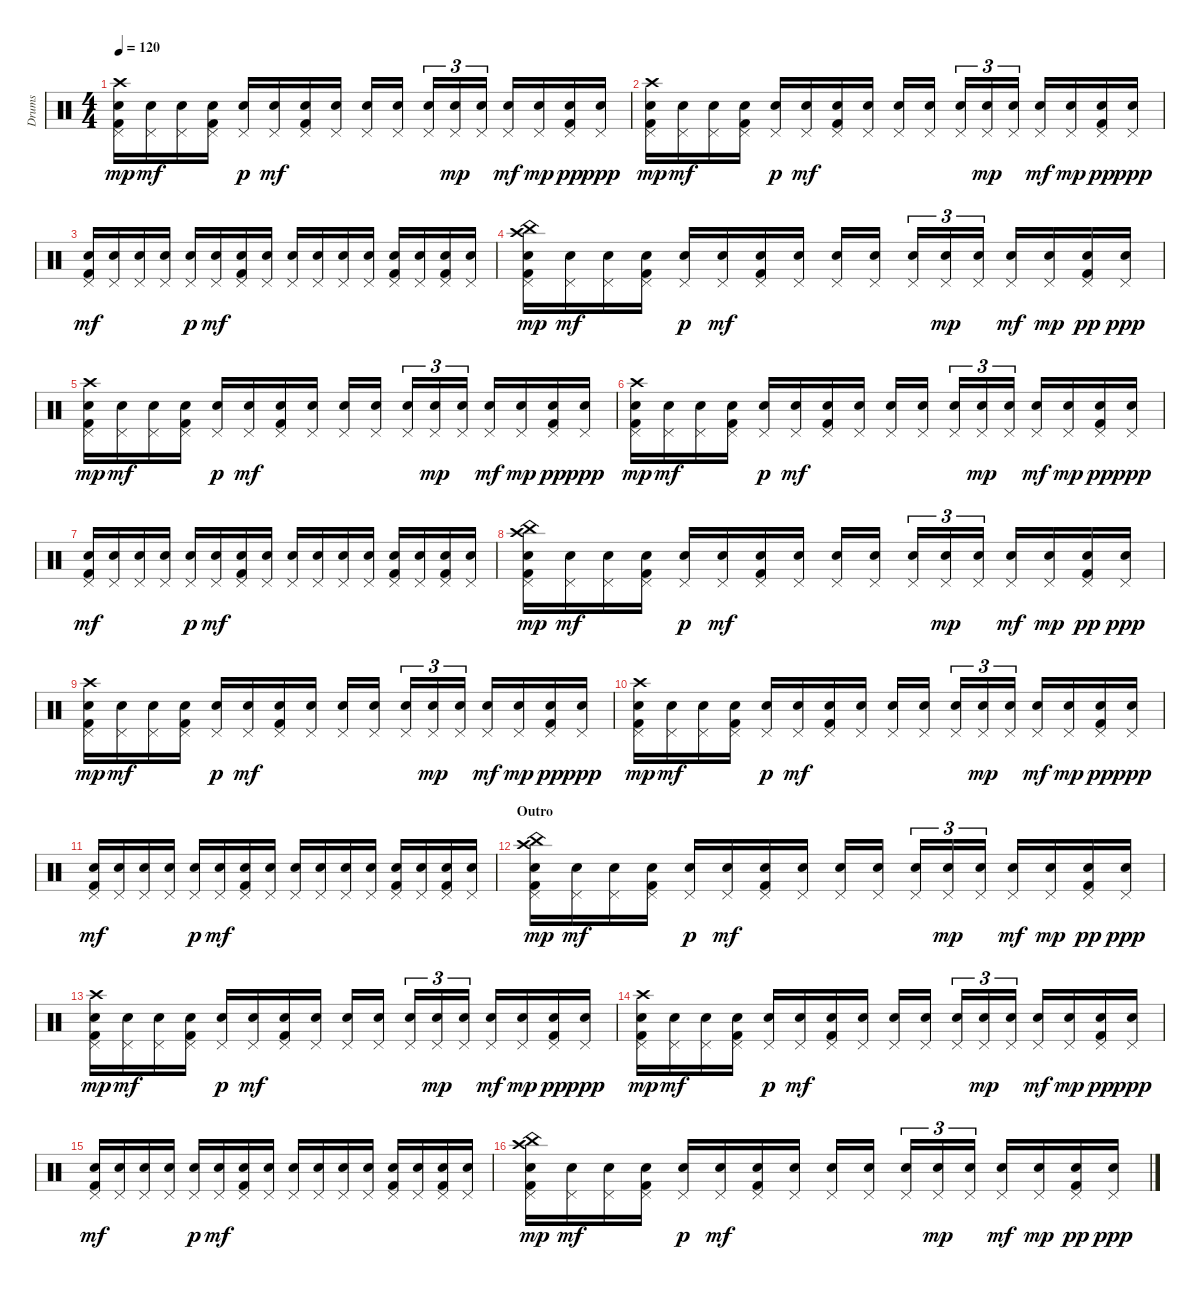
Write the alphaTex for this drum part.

\track ("Drums" "Drums") {instrument percussion}
\staff {score}
\articulation defaults
\ts (4 4)
\tempo 120
\clef neutral
\ks c
("Electric Snare (hit)" "Pedal Hi-Hat (hit)" "Kick (hit) 2" "Crash high (hit)").16{dy mp} ("Electric Snare (hit)" "Pedal Hi-Hat (hit)").16{dy mf} ("Electric Snare (hit)" "Pedal Hi-Hat (hit)").16 ("Electric Snare (hit)" "Pedal Hi-Hat (hit)" "Kick (hit) 2").16 ("Pedal Hi-Hat (hit)" "Electric Snare (hit)").16{dy p} ("Electric Snare (hit)" "Pedal Hi-Hat (hit)").16{dy mf} ("Electric Snare (hit)" "Pedal Hi-Hat (hit)" "Kick (hit) 2").16 ("Electric Snare (hit)" "Pedal Hi-Hat (hit)").16 ("Electric Snare (hit)" "Pedal Hi-Hat (hit)").16 ("Electric Snare (hit)" "Pedal Hi-Hat (hit)").16 ("Electric Snare (hit)" "Pedal Hi-Hat (hit)").16{tu (3 2)} ("Electric Snare (hit)" "Pedal Hi-Hat (hit)").16{tu (3 2) dy mp} ("Electric Snare (hit)" "Pedal Hi-Hat (hit)").16{tu (3 2)} ("Electric Snare (hit)" "Pedal Hi-Hat (hit)").16{dy mf} ("Electric Snare (hit)" "Pedal Hi-Hat (hit)").16{dy mp} ("Electric Snare (hit)" "Pedal Hi-Hat (hit)" "Kick (hit) 2").16{dy pp} ("Electric Snare (hit)" "Pedal Hi-Hat (hit)").16{dy ppp} |
("Electric Snare (hit)" "Pedal Hi-Hat (hit)" "Kick (hit) 2" "Crash high (hit)").16{dy mp} ("Electric Snare (hit)" "Pedal Hi-Hat (hit)").16{dy mf} ("Electric Snare (hit)" "Pedal Hi-Hat (hit)").16 ("Electric Snare (hit)" "Pedal Hi-Hat (hit)" "Kick (hit) 2").16 ("Pedal Hi-Hat (hit)" "Electric Snare (hit)").16{dy p} ("Electric Snare (hit)" "Pedal Hi-Hat (hit)").16{dy mf} ("Electric Snare (hit)" "Pedal Hi-Hat (hit)" "Kick (hit) 2").16 ("Electric Snare (hit)" "Pedal Hi-Hat (hit)").16 ("Electric Snare (hit)" "Pedal Hi-Hat (hit)").16 ("Electric Snare (hit)" "Pedal Hi-Hat (hit)").16 ("Electric Snare (hit)" "Pedal Hi-Hat (hit)").16{tu (3 2)} ("Electric Snare (hit)" "Pedal Hi-Hat (hit)").16{tu (3 2) dy mp} ("Electric Snare (hit)" "Pedal Hi-Hat (hit)").16{tu (3 2)} ("Electric Snare (hit)" "Pedal Hi-Hat (hit)").16{dy mf} ("Electric Snare (hit)" "Pedal Hi-Hat (hit)").16{dy mp} ("Electric Snare (hit)" "Pedal Hi-Hat (hit)" "Kick (hit) 2").16{dy pp} ("Electric Snare (hit)" "Pedal Hi-Hat (hit)").16{dy ppp} |
("Electric Snare (hit)" "Pedal Hi-Hat (hit)" "Kick (hit) 2").16{dy mf} ("Electric Snare (hit)" "Pedal Hi-Hat (hit)").16 ("Electric Snare (hit)" "Pedal Hi-Hat (hit)").16 ("Electric Snare (hit)" "Pedal Hi-Hat (hit)").16 ("Pedal Hi-Hat (hit)" "Electric Snare (hit)").16{dy p} ("Electric Snare (hit)" "Pedal Hi-Hat (hit)").16{dy mf} ("Electric Snare (hit)" "Pedal Hi-Hat (hit)" "Kick (hit) 2").16 ("Electric Snare (hit)" "Pedal Hi-Hat (hit)").16 ("Electric Snare (hit)" "Pedal Hi-Hat (hit)").16 ("Electric Snare (hit)" "Pedal Hi-Hat (hit)").16 ("Electric Snare (hit)" "Pedal Hi-Hat (hit)").16 ("Electric Snare (hit)" "Pedal Hi-Hat (hit)").16 ("Electric Snare (hit)" "Pedal Hi-Hat (hit)" "Kick (hit) 2").16 ("Electric Snare (hit)" "Pedal Hi-Hat (hit)").16 ("Electric Snare (hit)" "Pedal Hi-Hat (hit)" "Kick (hit) 2").16 ("Electric Snare (hit)" "Pedal Hi-Hat (hit)").16 |
("Electric Snare (hit)" "Pedal Hi-Hat (hit)" "Kick (hit) 2" "China (hit)" "Crash high (hit)").16{dy mp} ("Electric Snare (hit)" "Pedal Hi-Hat (hit)").16{dy mf} ("Electric Snare (hit)" "Pedal Hi-Hat (hit)").16 ("Electric Snare (hit)" "Pedal Hi-Hat (hit)" "Kick (hit) 2").16 ("Pedal Hi-Hat (hit)" "Electric Snare (hit)").16{dy p} ("Electric Snare (hit)" "Pedal Hi-Hat (hit)").16{dy mf} ("Electric Snare (hit)" "Pedal Hi-Hat (hit)" "Kick (hit) 2").16 ("Electric Snare (hit)" "Pedal Hi-Hat (hit)").16 ("Electric Snare (hit)" "Pedal Hi-Hat (hit)").16 ("Electric Snare (hit)" "Pedal Hi-Hat (hit)").16 ("Electric Snare (hit)" "Pedal Hi-Hat (hit)").16{tu (3 2)} ("Electric Snare (hit)" "Pedal Hi-Hat (hit)").16{tu (3 2) dy mp} ("Electric Snare (hit)" "Pedal Hi-Hat (hit)").16{tu (3 2)} ("Electric Snare (hit)" "Pedal Hi-Hat (hit)").16{dy mf} ("Electric Snare (hit)" "Pedal Hi-Hat (hit)").16{dy mp} ("Electric Snare (hit)" "Pedal Hi-Hat (hit)" "Kick (hit) 2").16{dy pp} ("Electric Snare (hit)" "Pedal Hi-Hat (hit)").16{dy ppp} |
("Electric Snare (hit)" "Pedal Hi-Hat (hit)" "Kick (hit) 2" "Crash high (hit)").16{dy mp} ("Electric Snare (hit)" "Pedal Hi-Hat (hit)").16{dy mf} ("Electric Snare (hit)" "Pedal Hi-Hat (hit)").16 ("Electric Snare (hit)" "Pedal Hi-Hat (hit)" "Kick (hit) 2").16 ("Pedal Hi-Hat (hit)" "Electric Snare (hit)").16{dy p} ("Electric Snare (hit)" "Pedal Hi-Hat (hit)").16{dy mf} ("Electric Snare (hit)" "Pedal Hi-Hat (hit)" "Kick (hit) 2").16 ("Electric Snare (hit)" "Pedal Hi-Hat (hit)").16 ("Electric Snare (hit)" "Pedal Hi-Hat (hit)").16 ("Electric Snare (hit)" "Pedal Hi-Hat (hit)").16 ("Electric Snare (hit)" "Pedal Hi-Hat (hit)").16{tu (3 2)} ("Electric Snare (hit)" "Pedal Hi-Hat (hit)").16{tu (3 2) dy mp} ("Electric Snare (hit)" "Pedal Hi-Hat (hit)").16{tu (3 2)} ("Electric Snare (hit)" "Pedal Hi-Hat (hit)").16{dy mf} ("Electric Snare (hit)" "Pedal Hi-Hat (hit)").16{dy mp} ("Electric Snare (hit)" "Pedal Hi-Hat (hit)" "Kick (hit) 2").16{dy pp} ("Electric Snare (hit)" "Pedal Hi-Hat (hit)").16{dy ppp} |
("Electric Snare (hit)" "Pedal Hi-Hat (hit)" "Kick (hit) 2" "Crash high (hit)").16{dy mp} ("Electric Snare (hit)" "Pedal Hi-Hat (hit)").16{dy mf} ("Electric Snare (hit)" "Pedal Hi-Hat (hit)").16 ("Electric Snare (hit)" "Pedal Hi-Hat (hit)" "Kick (hit) 2").16 ("Pedal Hi-Hat (hit)" "Electric Snare (hit)").16{dy p} ("Electric Snare (hit)" "Pedal Hi-Hat (hit)").16{dy mf} ("Electric Snare (hit)" "Pedal Hi-Hat (hit)" "Kick (hit) 2").16 ("Electric Snare (hit)" "Pedal Hi-Hat (hit)").16 ("Electric Snare (hit)" "Pedal Hi-Hat (hit)").16 ("Electric Snare (hit)" "Pedal Hi-Hat (hit)").16 ("Electric Snare (hit)" "Pedal Hi-Hat (hit)").16{tu (3 2)} ("Electric Snare (hit)" "Pedal Hi-Hat (hit)").16{tu (3 2) dy mp} ("Electric Snare (hit)" "Pedal Hi-Hat (hit)").16{tu (3 2)} ("Electric Snare (hit)" "Pedal Hi-Hat (hit)").16{dy mf} ("Electric Snare (hit)" "Pedal Hi-Hat (hit)").16{dy mp} ("Electric Snare (hit)" "Pedal Hi-Hat (hit)" "Kick (hit) 2").16{dy pp} ("Electric Snare (hit)" "Pedal Hi-Hat (hit)").16{dy ppp} |
("Electric Snare (hit)" "Pedal Hi-Hat (hit)" "Kick (hit) 2").16{dy mf} ("Electric Snare (hit)" "Pedal Hi-Hat (hit)").16 ("Electric Snare (hit)" "Pedal Hi-Hat (hit)").16 ("Electric Snare (hit)" "Pedal Hi-Hat (hit)").16 ("Pedal Hi-Hat (hit)" "Electric Snare (hit)").16{dy p} ("Electric Snare (hit)" "Pedal Hi-Hat (hit)").16{dy mf} ("Electric Snare (hit)" "Pedal Hi-Hat (hit)" "Kick (hit) 2").16 ("Electric Snare (hit)" "Pedal Hi-Hat (hit)").16 ("Electric Snare (hit)" "Pedal Hi-Hat (hit)").16 ("Electric Snare (hit)" "Pedal Hi-Hat (hit)").16 ("Electric Snare (hit)" "Pedal Hi-Hat (hit)").16 ("Electric Snare (hit)" "Pedal Hi-Hat (hit)").16 ("Electric Snare (hit)" "Pedal Hi-Hat (hit)" "Kick (hit) 2").16 ("Electric Snare (hit)" "Pedal Hi-Hat (hit)").16 ("Electric Snare (hit)" "Pedal Hi-Hat (hit)" "Kick (hit) 2").16 ("Electric Snare (hit)" "Pedal Hi-Hat (hit)").16 |
("Electric Snare (hit)" "Pedal Hi-Hat (hit)" "Kick (hit) 2" "China (hit)" "Crash high (hit)").16{dy mp} ("Electric Snare (hit)" "Pedal Hi-Hat (hit)").16{dy mf} ("Electric Snare (hit)" "Pedal Hi-Hat (hit)").16 ("Electric Snare (hit)" "Pedal Hi-Hat (hit)" "Kick (hit) 2").16 ("Pedal Hi-Hat (hit)" "Electric Snare (hit)").16{dy p} ("Electric Snare (hit)" "Pedal Hi-Hat (hit)").16{dy mf} ("Electric Snare (hit)" "Pedal Hi-Hat (hit)" "Kick (hit) 2").16 ("Electric Snare (hit)" "Pedal Hi-Hat (hit)").16 ("Electric Snare (hit)" "Pedal Hi-Hat (hit)").16 ("Electric Snare (hit)" "Pedal Hi-Hat (hit)").16 ("Electric Snare (hit)" "Pedal Hi-Hat (hit)").16{tu (3 2)} ("Electric Snare (hit)" "Pedal Hi-Hat (hit)").16{tu (3 2) dy mp} ("Electric Snare (hit)" "Pedal Hi-Hat (hit)").16{tu (3 2)} ("Electric Snare (hit)" "Pedal Hi-Hat (hit)").16{dy mf} ("Electric Snare (hit)" "Pedal Hi-Hat (hit)").16{dy mp} ("Electric Snare (hit)" "Pedal Hi-Hat (hit)" "Kick (hit) 2").16{dy pp} ("Electric Snare (hit)" "Pedal Hi-Hat (hit)").16{dy ppp} |
("Electric Snare (hit)" "Pedal Hi-Hat (hit)" "Kick (hit) 2" "Crash high (hit)").16{dy mp} ("Electric Snare (hit)" "Pedal Hi-Hat (hit)").16{dy mf} ("Electric Snare (hit)" "Pedal Hi-Hat (hit)").16 ("Electric Snare (hit)" "Pedal Hi-Hat (hit)" "Kick (hit) 2").16 ("Pedal Hi-Hat (hit)" "Electric Snare (hit)").16{dy p} ("Electric Snare (hit)" "Pedal Hi-Hat (hit)").16{dy mf} ("Electric Snare (hit)" "Pedal Hi-Hat (hit)" "Kick (hit) 2").16 ("Electric Snare (hit)" "Pedal Hi-Hat (hit)").16 ("Electric Snare (hit)" "Pedal Hi-Hat (hit)").16 ("Electric Snare (hit)" "Pedal Hi-Hat (hit)").16 ("Electric Snare (hit)" "Pedal Hi-Hat (hit)").16{tu (3 2)} ("Electric Snare (hit)" "Pedal Hi-Hat (hit)").16{tu (3 2) dy mp} ("Electric Snare (hit)" "Pedal Hi-Hat (hit)").16{tu (3 2)} ("Electric Snare (hit)" "Pedal Hi-Hat (hit)").16{dy mf} ("Electric Snare (hit)" "Pedal Hi-Hat (hit)").16{dy mp} ("Electric Snare (hit)" "Pedal Hi-Hat (hit)" "Kick (hit) 2").16{dy pp} ("Electric Snare (hit)" "Pedal Hi-Hat (hit)").16{dy ppp} |
("Electric Snare (hit)" "Pedal Hi-Hat (hit)" "Kick (hit) 2" "Crash high (hit)").16{dy mp} ("Electric Snare (hit)" "Pedal Hi-Hat (hit)").16{dy mf} ("Electric Snare (hit)" "Pedal Hi-Hat (hit)").16 ("Electric Snare (hit)" "Pedal Hi-Hat (hit)" "Kick (hit) 2").16 ("Pedal Hi-Hat (hit)" "Electric Snare (hit)").16{dy p} ("Electric Snare (hit)" "Pedal Hi-Hat (hit)").16{dy mf} ("Electric Snare (hit)" "Pedal Hi-Hat (hit)" "Kick (hit) 2").16 ("Electric Snare (hit)" "Pedal Hi-Hat (hit)").16 ("Electric Snare (hit)" "Pedal Hi-Hat (hit)").16 ("Electric Snare (hit)" "Pedal Hi-Hat (hit)").16 ("Electric Snare (hit)" "Pedal Hi-Hat (hit)").16{tu (3 2)} ("Electric Snare (hit)" "Pedal Hi-Hat (hit)").16{tu (3 2) dy mp} ("Electric Snare (hit)" "Pedal Hi-Hat (hit)").16{tu (3 2)} ("Electric Snare (hit)" "Pedal Hi-Hat (hit)").16{dy mf} ("Electric Snare (hit)" "Pedal Hi-Hat (hit)").16{dy mp} ("Electric Snare (hit)" "Pedal Hi-Hat (hit)" "Kick (hit) 2").16{dy pp} ("Electric Snare (hit)" "Pedal Hi-Hat (hit)").16{dy ppp} |
("Electric Snare (hit)" "Pedal Hi-Hat (hit)" "Kick (hit) 2").16{dy mf} ("Electric Snare (hit)" "Pedal Hi-Hat (hit)").16 ("Electric Snare (hit)" "Pedal Hi-Hat (hit)").16 ("Electric Snare (hit)" "Pedal Hi-Hat (hit)").16 ("Pedal Hi-Hat (hit)" "Electric Snare (hit)").16{dy p} ("Electric Snare (hit)" "Pedal Hi-Hat (hit)").16{dy mf} ("Electric Snare (hit)" "Pedal Hi-Hat (hit)" "Kick (hit) 2").16 ("Electric Snare (hit)" "Pedal Hi-Hat (hit)").16 ("Electric Snare (hit)" "Pedal Hi-Hat (hit)").16 ("Electric Snare (hit)" "Pedal Hi-Hat (hit)").16 ("Electric Snare (hit)" "Pedal Hi-Hat (hit)").16 ("Electric Snare (hit)" "Pedal Hi-Hat (hit)").16 ("Electric Snare (hit)" "Pedal Hi-Hat (hit)" "Kick (hit) 2").16 ("Electric Snare (hit)" "Pedal Hi-Hat (hit)").16 ("Electric Snare (hit)" "Pedal Hi-Hat (hit)" "Kick (hit) 2").16 ("Electric Snare (hit)" "Pedal Hi-Hat (hit)").16 |
\section ("" "Outro")
("Electric Snare (hit)" "Pedal Hi-Hat (hit)" "Kick (hit) 2" "China (hit)" "Crash high (hit)").16{dy mp} ("Electric Snare (hit)" "Pedal Hi-Hat (hit)").16{dy mf} ("Electric Snare (hit)" "Pedal Hi-Hat (hit)").16 ("Electric Snare (hit)" "Pedal Hi-Hat (hit)" "Kick (hit) 2").16 ("Pedal Hi-Hat (hit)" "Electric Snare (hit)").16{dy p} ("Electric Snare (hit)" "Pedal Hi-Hat (hit)").16{dy mf} ("Electric Snare (hit)" "Pedal Hi-Hat (hit)" "Kick (hit) 2").16 ("Electric Snare (hit)" "Pedal Hi-Hat (hit)").16 ("Electric Snare (hit)" "Pedal Hi-Hat (hit)").16 ("Electric Snare (hit)" "Pedal Hi-Hat (hit)").16 ("Electric Snare (hit)" "Pedal Hi-Hat (hit)").16{tu (3 2)} ("Electric Snare (hit)" "Pedal Hi-Hat (hit)").16{tu (3 2) dy mp} ("Electric Snare (hit)" "Pedal Hi-Hat (hit)").16{tu (3 2)} ("Electric Snare (hit)" "Pedal Hi-Hat (hit)").16{dy mf} ("Electric Snare (hit)" "Pedal Hi-Hat (hit)").16{dy mp} ("Electric Snare (hit)" "Pedal Hi-Hat (hit)" "Kick (hit) 2").16{dy pp} ("Electric Snare (hit)" "Pedal Hi-Hat (hit)").16{dy ppp} |
("Electric Snare (hit)" "Pedal Hi-Hat (hit)" "Kick (hit) 2" "Crash high (hit)").16{dy mp} ("Electric Snare (hit)" "Pedal Hi-Hat (hit)").16{dy mf} ("Electric Snare (hit)" "Pedal Hi-Hat (hit)").16 ("Electric Snare (hit)" "Pedal Hi-Hat (hit)" "Kick (hit) 2").16 ("Pedal Hi-Hat (hit)" "Electric Snare (hit)").16{dy p} ("Electric Snare (hit)" "Pedal Hi-Hat (hit)").16{dy mf} ("Electric Snare (hit)" "Pedal Hi-Hat (hit)" "Kick (hit) 2").16 ("Electric Snare (hit)" "Pedal Hi-Hat (hit)").16 ("Electric Snare (hit)" "Pedal Hi-Hat (hit)").16 ("Electric Snare (hit)" "Pedal Hi-Hat (hit)").16 ("Electric Snare (hit)" "Pedal Hi-Hat (hit)").16{tu (3 2)} ("Electric Snare (hit)" "Pedal Hi-Hat (hit)").16{tu (3 2) dy mp} ("Electric Snare (hit)" "Pedal Hi-Hat (hit)").16{tu (3 2)} ("Electric Snare (hit)" "Pedal Hi-Hat (hit)").16{dy mf} ("Electric Snare (hit)" "Pedal Hi-Hat (hit)").16{dy mp} ("Electric Snare (hit)" "Pedal Hi-Hat (hit)" "Kick (hit) 2").16{dy pp} ("Electric Snare (hit)" "Pedal Hi-Hat (hit)").16{dy ppp} |
("Electric Snare (hit)" "Pedal Hi-Hat (hit)" "Kick (hit) 2" "Crash high (hit)").16{dy mp} ("Electric Snare (hit)" "Pedal Hi-Hat (hit)").16{dy mf} ("Electric Snare (hit)" "Pedal Hi-Hat (hit)").16 ("Electric Snare (hit)" "Pedal Hi-Hat (hit)" "Kick (hit) 2").16 ("Pedal Hi-Hat (hit)" "Electric Snare (hit)").16{dy p} ("Electric Snare (hit)" "Pedal Hi-Hat (hit)").16{dy mf} ("Electric Snare (hit)" "Pedal Hi-Hat (hit)" "Kick (hit) 2").16 ("Electric Snare (hit)" "Pedal Hi-Hat (hit)").16 ("Electric Snare (hit)" "Pedal Hi-Hat (hit)").16 ("Electric Snare (hit)" "Pedal Hi-Hat (hit)").16 ("Electric Snare (hit)" "Pedal Hi-Hat (hit)").16{tu (3 2)} ("Electric Snare (hit)" "Pedal Hi-Hat (hit)").16{tu (3 2) dy mp} ("Electric Snare (hit)" "Pedal Hi-Hat (hit)").16{tu (3 2)} ("Electric Snare (hit)" "Pedal Hi-Hat (hit)").16{dy mf} ("Electric Snare (hit)" "Pedal Hi-Hat (hit)").16{dy mp} ("Electric Snare (hit)" "Pedal Hi-Hat (hit)" "Kick (hit) 2").16{dy pp} ("Electric Snare (hit)" "Pedal Hi-Hat (hit)").16{dy ppp} |
("Electric Snare (hit)" "Pedal Hi-Hat (hit)" "Kick (hit) 2").16{dy mf} ("Electric Snare (hit)" "Pedal Hi-Hat (hit)").16 ("Electric Snare (hit)" "Pedal Hi-Hat (hit)").16 ("Electric Snare (hit)" "Pedal Hi-Hat (hit)").16 ("Pedal Hi-Hat (hit)" "Electric Snare (hit)").16{dy p} ("Electric Snare (hit)" "Pedal Hi-Hat (hit)").16{dy mf} ("Electric Snare (hit)" "Pedal Hi-Hat (hit)" "Kick (hit) 2").16 ("Electric Snare (hit)" "Pedal Hi-Hat (hit)").16 ("Electric Snare (hit)" "Pedal Hi-Hat (hit)").16 ("Electric Snare (hit)" "Pedal Hi-Hat (hit)").16 ("Electric Snare (hit)" "Pedal Hi-Hat (hit)").16 ("Electric Snare (hit)" "Pedal Hi-Hat (hit)").16 ("Electric Snare (hit)" "Pedal Hi-Hat (hit)" "Kick (hit) 2").16 ("Electric Snare (hit)" "Pedal Hi-Hat (hit)").16 ("Electric Snare (hit)" "Pedal Hi-Hat (hit)" "Kick (hit) 2").16 ("Electric Snare (hit)" "Pedal Hi-Hat (hit)").16 |
("Electric Snare (hit)" "Pedal Hi-Hat (hit)" "Kick (hit) 2" "China (hit)" "Crash high (hit)").16{dy mp} ("Electric Snare (hit)" "Pedal Hi-Hat (hit)").16{dy mf} ("Electric Snare (hit)" "Pedal Hi-Hat (hit)").16 ("Electric Snare (hit)" "Pedal Hi-Hat (hit)" "Kick (hit) 2").16 ("Pedal Hi-Hat (hit)" "Electric Snare (hit)").16{dy p} ("Electric Snare (hit)" "Pedal Hi-Hat (hit)").16{dy mf} ("Electric Snare (hit)" "Pedal Hi-Hat (hit)" "Kick (hit) 2").16 ("Electric Snare (hit)" "Pedal Hi-Hat (hit)").16 ("Electric Snare (hit)" "Pedal Hi-Hat (hit)").16 ("Electric Snare (hit)" "Pedal Hi-Hat (hit)").16 ("Electric Snare (hit)" "Pedal Hi-Hat (hit)").16{tu (3 2)} ("Electric Snare (hit)" "Pedal Hi-Hat (hit)").16{tu (3 2) dy mp} ("Electric Snare (hit)" "Pedal Hi-Hat (hit)").16{tu (3 2)} ("Electric Snare (hit)" "Pedal Hi-Hat (hit)").16{dy mf} ("Electric Snare (hit)" "Pedal Hi-Hat (hit)").16{dy mp} ("Electric Snare (hit)" "Pedal Hi-Hat (hit)" "Kick (hit) 2").16{dy pp} ("Electric Snare (hit)" "Pedal Hi-Hat (hit)").16{dy ppp}
